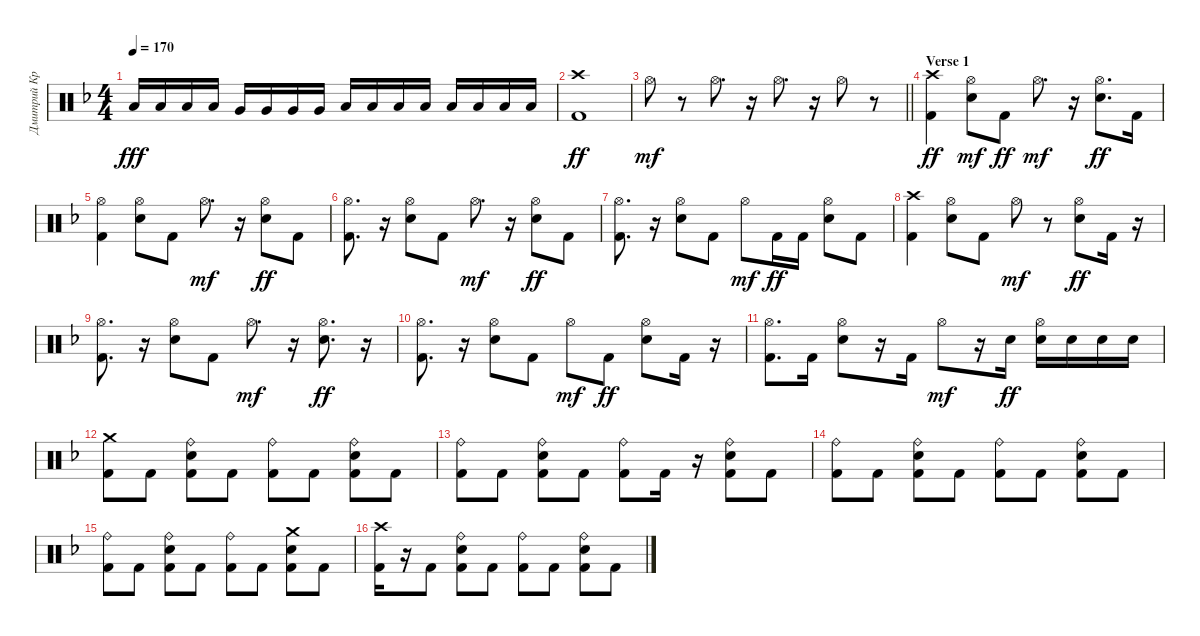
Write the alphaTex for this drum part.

\track ("Дмитрий Кривенков" "Дмитрий Кр") {instrument percussion}
\staff {score}
\articulation defaults
\ts (4 4)
\tempo 170
\clef neutral
\ks f "Low Tom (hit)".16{dy fff} "Low Tom (hit)".16 "Low Tom (hit)".16 "Low Tom (hit)".16 "Very Low Tom (hit)".16 "Very Low Tom (hit)".16 "Very Low Tom (hit)".16 "Very Low Tom (hit)".16 "Low Floor Tom (hit)".16 "Low Floor Tom (hit)".16 "Low Floor Tom (hit)".16 "Low Floor Tom (hit)".16 "Low Floor Tom (hit)".16 "Low Floor Tom (hit)".16 "Low Floor Tom (hit)".16 "Low Floor Tom (hit)".16
|
("Kick (hit) 2" "Crash high (hit)").1{dy ff} |
\barLineRight lightlight "Hi-Hat (open)".8{dy mf}
r.8 "Hi-Hat (open)".8{d} r.16 "Hi-Hat (open)".8{d} r.16 "Hi-Hat (open)".8 r.8 |
\section ("" "Verse 1")
("Kick (hit) 2" "Crash high (hit)").4{dy ff} ("Electric Snare (hit)" "Hi-Hat (open)").8{dy mf} "Kick (hit) 2".8{dy ff} "Hi-Hat (open)".8{d dy mf} r.16 ("Hi-Hat (open)" "Electric Snare (hit)").8{d dy ff} "Kick (hit) 2".16 |
("Hi-Hat (open)" "Kick (hit) 2").4 ("Hi-Hat (open)" "Electric Snare (hit)").8 "Kick (hit) 2".8 "Hi-Hat (open)".8{d dy mf} r.16 ("Hi-Hat (open)" "Electric Snare (hit)").8{dy ff} "Kick (hit) 2".8 |
("Hi-Hat (open)" "Kick (hit) 2").8{d} r.16 ("Hi-Hat (open)" "Electric Snare (hit)").8 "Kick (hit) 2".8 "Hi-Hat (open)".8{d dy mf} r.16 ("Hi-Hat (open)" "Electric Snare (hit)").8{dy ff} "Kick (hit) 2".8 |
("Hi-Hat (open)" "Kick (hit) 2").8{d} r.16 ("Hi-Hat (open)" "Electric Snare (hit)").8 "Kick (hit) 2".8 "Hi-Hat (open)".8{dy mf} "Kick (hit) 2".16{dy ff} "Kick (hit) 2".16 ("Hi-Hat (open)" "Electric Snare (hit)").8 "Kick (hit) 2".8 |
("Kick (hit) 2" "Crash high (hit)").4 ("Hi-Hat (open)" "Electric Snare (hit)").8 "Kick (hit) 2".8 "Hi-Hat (open)".8{dy mf} r.8 ("Hi-Hat (open)" "Electric Snare (hit)").8{dy ff} "Kick (hit) 2".16 r.16 |
("Hi-Hat (open)" "Kick (hit) 2").8{d} r.16 ("Hi-Hat (open)" "Electric Snare (hit)").8 "Kick (hit) 2".8 "Hi-Hat (open)".8{d dy mf} r.16 ("Hi-Hat (open)" "Electric Snare (hit)").8{d dy ff} r.16 |
("Hi-Hat (open)" "Kick (hit) 2").8{d} r.16 ("Hi-Hat (open)" "Electric Snare (hit)").8 "Kick (hit) 2".8 "Hi-Hat (open)".8{dy mf} "Kick (hit) 2".8{dy ff} ("Hi-Hat (open)" "Electric Snare (hit)").8 "Kick (hit) 2".16 r.16 |
("Hi-Hat (open)" "Kick (hit) 2").8{d} "Kick (hit) 2".16 ("Hi-Hat (open)" "Electric Snare (hit)").8 r.16 "Kick (hit) 2".16 "Hi-Hat (open)".8{dy mf} r.16 "Electric Snare (hit)".16{dy ff} ("Hi-Hat (open)" "Electric Snare (hit)").16 "Electric Snare (hit)".16 "Electric Snare (hit)".16 "Electric Snare (hit)".16 |
("Kick (hit) 2" "Crash medium (hit)").8 "Kick (hit) 2".8 ("Kick (hit) 2" "Electric Snare (hit)" "Ride (bell)").8 "Kick (hit) 2".8 ("Kick (hit) 2" "Ride (bell)").8 "Kick (hit) 2".8 ("Kick (hit) 2" "Electric Snare (hit)" "Ride (bell)").8 "Kick (hit) 2".8 |
("Kick (hit) 2" "Ride (bell)").8 "Kick (hit) 2".8 ("Kick (hit) 2" "Electric Snare (hit)" "Ride (bell)").8 "Kick (hit) 2".8 ("Kick (hit) 2" "Ride (bell)").8 "Kick (hit) 2".16 r.16 ("Kick (hit) 2" "Electric Snare (hit)" "Ride (bell)").8 "Kick (hit) 2".8 |
("Kick (hit) 2" "Ride (bell)").8 "Kick (hit) 2".8 ("Kick (hit) 2" "Electric Snare (hit)" "Ride (bell)").8 "Kick (hit) 2".8 ("Kick (hit) 2" "Ride (bell)").8 "Kick (hit) 2".8 ("Kick (hit) 2" "Electric Snare (hit)" "Ride (bell)").8 "Kick (hit) 2".8 |
("Kick (hit) 2" "Ride (bell)").8 "Kick (hit) 2".8 ("Kick (hit) 2" "Electric Snare (hit)" "Ride (bell)").8 "Kick (hit) 2".8 ("Kick (hit) 2" "Ride (bell)").8 "Kick (hit) 2".8 ("Kick (hit) 2" "Electric Snare (hit)" "Crash medium (hit)").8 "Kick (hit) 2".8 |
("Kick (hit) 2" "Crash high (hit)").16 r.16 "Kick (hit) 2".8 ("Kick (hit) 2" "Electric Snare (hit)" "Ride (bell)").8 "Kick (hit) 2".8 ("Kick (hit) 2" "Ride (bell)").8 "Kick (hit) 2".8 ("Kick (hit) 2" "Electric Snare (hit)" "Ride (bell)").8 "Kick (hit) 2".8
